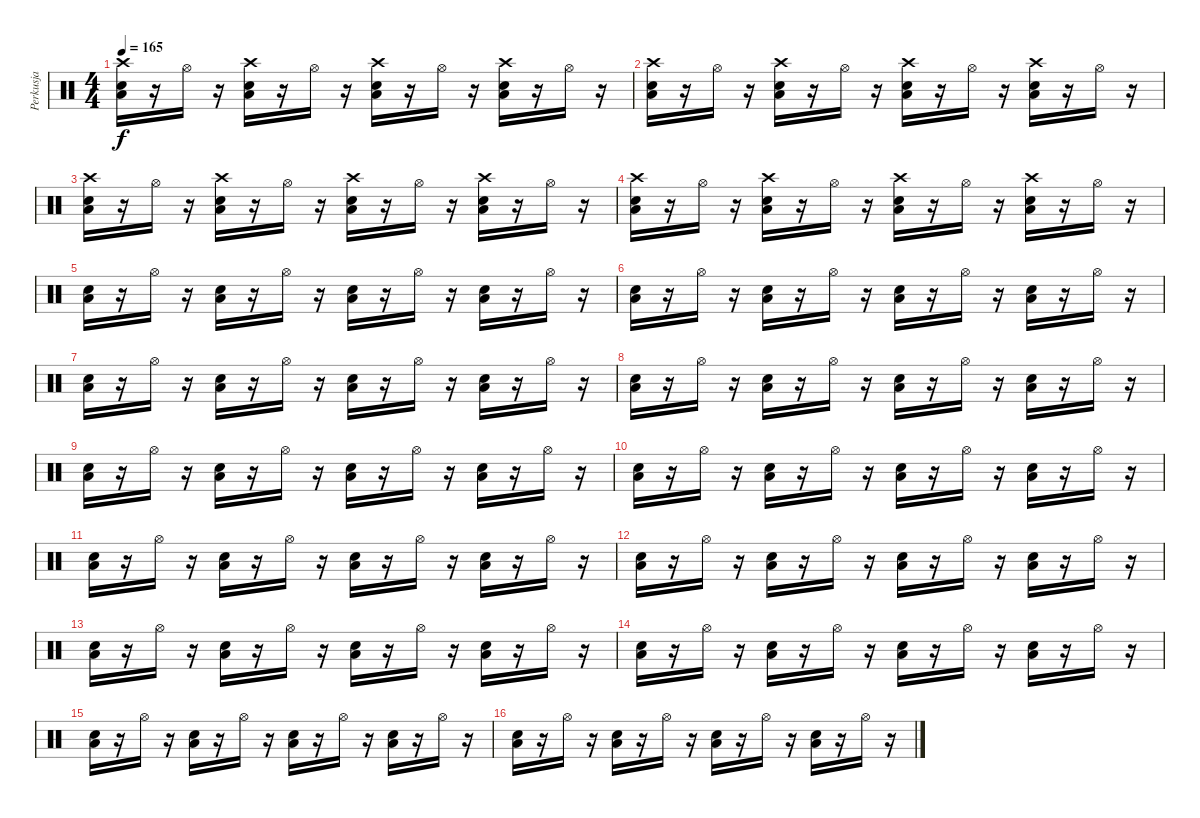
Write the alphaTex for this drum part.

\track ("Perkusja" "Perkusja") {instrument percussion}
\staff {score}
\articulation defaults
\ts (4 4)
\tempo 165
\clef neutral
\ks c
("Snare (hit) 2" "Low Tom (hit)" "Crash high (hit)").16{dy f} r.16 "Hi-Hat (open)".16 r.16 ("Snare (hit) 2" "Low Tom (hit)" "Crash high (hit)").16 r.16 "Hi-Hat (open)".16 r.16 ("Snare (hit) 2" "Low Tom (hit)" "Crash high (hit)").16 r.16 "Hi-Hat (open)".16 r.16 ("Snare (hit) 2" "Low Tom (hit)" "Crash high (hit)").16 r.16 "Hi-Hat (open)".16 r.16 |
("Snare (hit) 2" "Low Tom (hit)" "Crash high (hit)").16 r.16 "Hi-Hat (open)".16 r.16 ("Snare (hit) 2" "Low Tom (hit)" "Crash high (hit)").16 r.16 "Hi-Hat (open)".16 r.16 ("Snare (hit) 2" "Low Tom (hit)" "Crash high (hit)").16 r.16 "Hi-Hat (open)".16 r.16 ("Snare (hit) 2" "Low Tom (hit)" "Crash high (hit)").16 r.16 "Hi-Hat (open)".16 r.16 |
("Snare (hit) 2" "Low Tom (hit)" "Crash high (hit)").16 r.16 "Hi-Hat (open)".16 r.16 ("Snare (hit) 2" "Low Tom (hit)" "Crash high (hit)").16 r.16 "Hi-Hat (open)".16 r.16 ("Snare (hit) 2" "Low Tom (hit)" "Crash high (hit)").16 r.16 "Hi-Hat (open)".16 r.16 ("Snare (hit) 2" "Low Tom (hit)" "Crash high (hit)").16 r.16 "Hi-Hat (open)".16 r.16 |
("Snare (hit) 2" "Low Tom (hit)" "Crash high (hit)").16 r.16 "Hi-Hat (open)".16 r.16 ("Snare (hit) 2" "Low Tom (hit)" "Crash high (hit)").16 r.16 "Hi-Hat (open)".16 r.16 ("Snare (hit) 2" "Low Tom (hit)" "Crash high (hit)").16 r.16 "Hi-Hat (open)".16 r.16 ("Snare (hit) 2" "Low Tom (hit)" "Crash high (hit)").16 r.16 "Hi-Hat (open)".16 r.16 |
("Snare (hit) 2" "Low Tom (hit)").16 r.16 "Hi-Hat (open)".16 r.16 ("Snare (hit) 2" "Low Tom (hit)").16 r.16 "Hi-Hat (open)".16 r.16 ("Snare (hit) 2" "Low Tom (hit)").16 r.16 "Hi-Hat (open)".16 r.16 ("Snare (hit) 2" "Low Tom (hit)").16 r.16 "Hi-Hat (open)".16 r.16 |
("Snare (hit) 2" "Low Tom (hit)").16 r.16 "Hi-Hat (open)".16 r.16 ("Snare (hit) 2" "Low Tom (hit)").16 r.16 "Hi-Hat (open)".16 r.16 ("Snare (hit) 2" "Low Tom (hit)").16 r.16 "Hi-Hat (open)".16 r.16 ("Snare (hit) 2" "Low Tom (hit)").16 r.16 "Hi-Hat (open)".16 r.16 |
("Snare (hit) 2" "Low Tom (hit)").16 r.16 "Hi-Hat (open)".16 r.16 ("Snare (hit) 2" "Low Tom (hit)").16 r.16 "Hi-Hat (open)".16 r.16 ("Snare (hit) 2" "Low Tom (hit)").16 r.16 "Hi-Hat (open)".16 r.16 ("Snare (hit) 2" "Low Tom (hit)").16 r.16 "Hi-Hat (open)".16 r.16 |
("Snare (hit) 2" "Low Tom (hit)").16 r.16 "Hi-Hat (open)".16 r.16 ("Snare (hit) 2" "Low Tom (hit)").16 r.16 "Hi-Hat (open)".16 r.16 ("Snare (hit) 2" "Low Tom (hit)").16 r.16 "Hi-Hat (open)".16 r.16 ("Snare (hit) 2" "Low Tom (hit)").16 r.16 "Hi-Hat (open)".16 r.16 |
("Snare (hit) 2" "Low Tom (hit)").16 r.16 "Hi-Hat (open)".16 r.16 ("Snare (hit) 2" "Low Tom (hit)").16 r.16 "Hi-Hat (open)".16 r.16 ("Snare (hit) 2" "Low Tom (hit)").16 r.16 "Hi-Hat (open)".16 r.16 ("Snare (hit) 2" "Low Tom (hit)").16 r.16 "Hi-Hat (open)".16 r.16 |
("Snare (hit) 2" "Low Tom (hit)").16 r.16 "Hi-Hat (open)".16 r.16 ("Snare (hit) 2" "Low Tom (hit)").16 r.16 "Hi-Hat (open)".16 r.16 ("Snare (hit) 2" "Low Tom (hit)").16 r.16 "Hi-Hat (open)".16 r.16 ("Snare (hit) 2" "Low Tom (hit)").16 r.16 "Hi-Hat (open)".16 r.16 |
("Snare (hit) 2" "Low Tom (hit)").16 r.16 "Hi-Hat (open)".16 r.16 ("Snare (hit) 2" "Low Tom (hit)").16 r.16 "Hi-Hat (open)".16 r.16 ("Snare (hit) 2" "Low Tom (hit)").16 r.16 "Hi-Hat (open)".16 r.16 ("Snare (hit) 2" "Low Tom (hit)").16 r.16 "Hi-Hat (open)".16 r.16 |
("Snare (hit) 2" "Low Tom (hit)").16 r.16 "Hi-Hat (open)".16 r.16 ("Snare (hit) 2" "Low Tom (hit)").16 r.16 "Hi-Hat (open)".16 r.16 ("Snare (hit) 2" "Low Tom (hit)").16 r.16 "Hi-Hat (open)".16 r.16 ("Snare (hit) 2" "Low Tom (hit)").16 r.16 "Hi-Hat (open)".16 r.16 |
("Snare (hit) 2" "Low Tom (hit)").16 r.16 "Hi-Hat (open)".16 r.16 ("Snare (hit) 2" "Low Tom (hit)").16 r.16 "Hi-Hat (open)".16 r.16 ("Snare (hit) 2" "Low Tom (hit)").16 r.16 "Hi-Hat (open)".16 r.16 ("Snare (hit) 2" "Low Tom (hit)").16 r.16 "Hi-Hat (open)".16 r.16 |
("Snare (hit) 2" "Low Tom (hit)").16 r.16 "Hi-Hat (open)".16 r.16 ("Snare (hit) 2" "Low Tom (hit)").16 r.16 "Hi-Hat (open)".16 r.16 ("Snare (hit) 2" "Low Tom (hit)").16 r.16 "Hi-Hat (open)".16 r.16 ("Snare (hit) 2" "Low Tom (hit)").16 r.16 "Hi-Hat (open)".16 r.16 |
("Snare (hit) 2" "Low Tom (hit)").16 r.16 "Hi-Hat (open)".16 r.16 ("Snare (hit) 2" "Low Tom (hit)").16 r.16 "Hi-Hat (open)".16 r.16 ("Snare (hit) 2" "Low Tom (hit)").16 r.16 "Hi-Hat (open)".16 r.16 ("Snare (hit) 2" "Low Tom (hit)").16 r.16 "Hi-Hat (open)".16 r.16 |
("Snare (hit) 2" "Low Tom (hit)").16 r.16 "Hi-Hat (open)".16 r.16 ("Snare (hit) 2" "Low Tom (hit)").16 r.16 "Hi-Hat (open)".16 r.16 ("Snare (hit) 2" "Low Tom (hit)").16 r.16 "Hi-Hat (open)".16 r.16 ("Snare (hit) 2" "Low Tom (hit)").16 r.16 "Hi-Hat (open)".16 r.16
